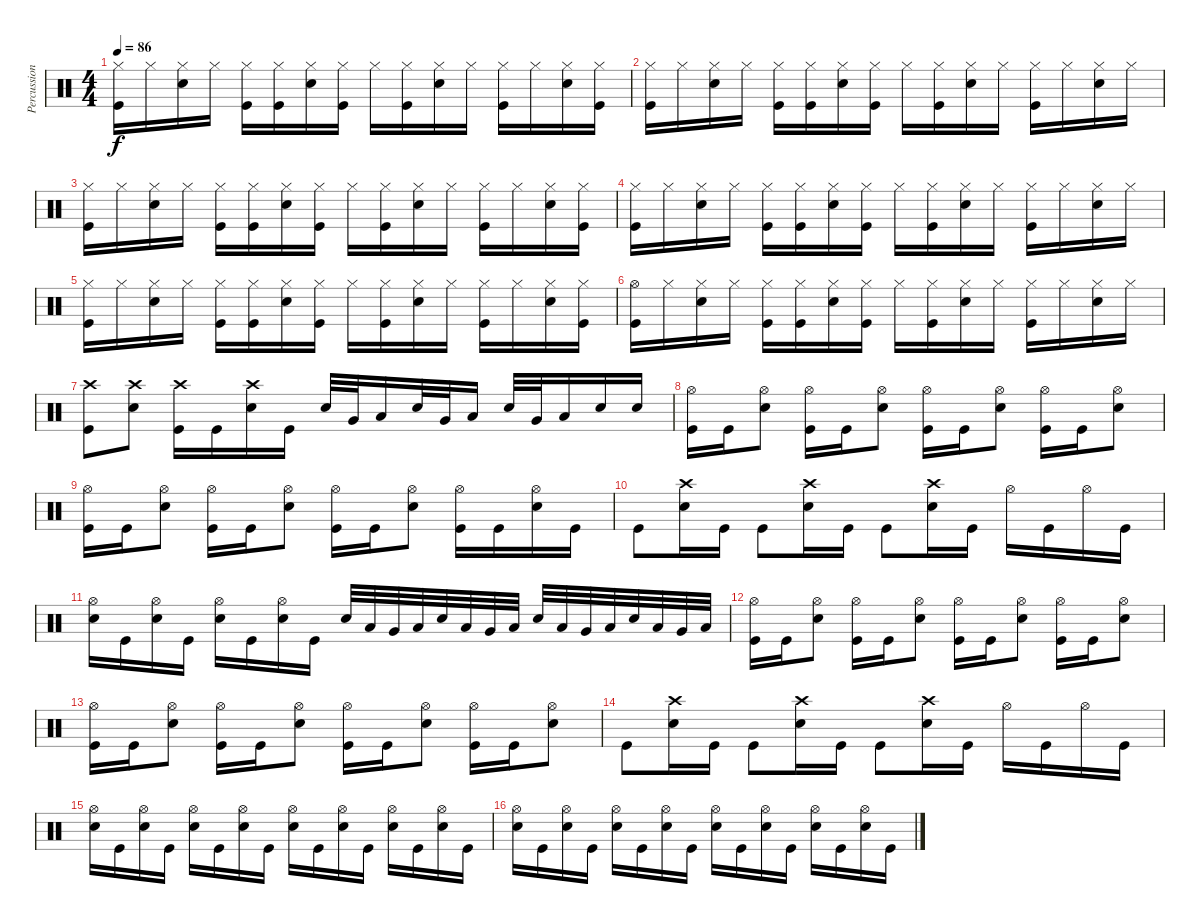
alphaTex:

\track ("Percussions" "Percussion") {instrument percussion}
\staff {score}
\articulation defaults
\ts (4 4)
\tempo 86
\clef neutral
\ks c
("Hi-Hat (closed)" "Kick (hit)").16{dy f} "Hi-Hat (closed)".16 ("Hi-Hat (closed)" "Snare (hit) 2").16 "Hi-Hat (closed)".16 ("Hi-Hat (closed)" "Kick (hit)").16 ("Hi-Hat (closed)" "Kick (hit)").16 ("Hi-Hat (closed)" "Snare (hit) 2").16 ("Hi-Hat (closed)" "Kick (hit)").16 "Hi-Hat (closed)".16 ("Hi-Hat (closed)" "Kick (hit)").16 ("Hi-Hat (closed)" "Snare (hit) 2").16 "Hi-Hat (closed)".16 ("Hi-Hat (closed)" "Kick (hit)").16 "Hi-Hat (closed)".16 ("Hi-Hat (closed)" "Snare (hit) 2").16 ("Hi-Hat (closed)" "Kick (hit)").16 |
("Hi-Hat (closed)" "Kick (hit)").16 "Hi-Hat (closed)".16 ("Hi-Hat (closed)" "Snare (hit) 2").16 "Hi-Hat (closed)".16 ("Hi-Hat (closed)" "Kick (hit)").16 ("Hi-Hat (closed)" "Kick (hit)").16 ("Hi-Hat (closed)" "Snare (hit) 2").16 ("Hi-Hat (closed)" "Kick (hit)").16 "Hi-Hat (closed)".16 ("Hi-Hat (closed)" "Kick (hit)").16 ("Hi-Hat (closed)" "Snare (hit) 2").16 "Hi-Hat (closed)".16 ("Hi-Hat (closed)" "Kick (hit)").16 "Hi-Hat (closed)".16 ("Hi-Hat (closed)" "Snare (hit) 2").16 "Hi-Hat (closed)".16 |
("Hi-Hat (closed)" "Kick (hit)").16 "Hi-Hat (closed)".16 ("Hi-Hat (closed)" "Snare (hit) 2").16 "Hi-Hat (closed)".16 ("Hi-Hat (closed)" "Kick (hit)").16 ("Hi-Hat (closed)" "Kick (hit)").16 ("Hi-Hat (closed)" "Snare (hit) 2").16 ("Hi-Hat (closed)" "Kick (hit)").16 "Hi-Hat (closed)".16 ("Hi-Hat (closed)" "Kick (hit)").16 ("Hi-Hat (closed)" "Snare (hit) 2").16 "Hi-Hat (closed)".16 ("Hi-Hat (closed)" "Kick (hit)").16 "Hi-Hat (closed)".16 ("Hi-Hat (closed)" "Snare (hit) 2").16 ("Hi-Hat (closed)" "Kick (hit)").16 |
("Hi-Hat (closed)" "Kick (hit)").16 "Hi-Hat (closed)".16 ("Hi-Hat (closed)" "Snare (hit) 2").16 "Hi-Hat (closed)".16 ("Hi-Hat (closed)" "Kick (hit)").16 ("Hi-Hat (closed)" "Kick (hit)").16 ("Hi-Hat (closed)" "Snare (hit) 2").16 ("Hi-Hat (closed)" "Kick (hit)").16 "Hi-Hat (closed)".16 ("Hi-Hat (closed)" "Kick (hit)").16 ("Hi-Hat (closed)" "Snare (hit) 2").16 "Hi-Hat (closed)".16 ("Hi-Hat (closed)" "Kick (hit)").16 "Hi-Hat (closed)".16 ("Hi-Hat (closed)" "Snare (hit) 2").16 "Hi-Hat (closed)".16 |
("Hi-Hat (closed)" "Kick (hit)").16 "Hi-Hat (closed)".16 ("Hi-Hat (closed)" "Snare (hit) 2").16 "Hi-Hat (closed)".16 ("Hi-Hat (closed)" "Kick (hit)").16 ("Hi-Hat (closed)" "Kick (hit)").16 ("Hi-Hat (closed)" "Snare (hit) 2").16 ("Hi-Hat (closed)" "Kick (hit)").16 "Hi-Hat (closed)".16 ("Hi-Hat (closed)" "Kick (hit)").16 ("Hi-Hat (closed)" "Snare (hit) 2").16 "Hi-Hat (closed)".16 ("Hi-Hat (closed)" "Kick (hit)").16 "Hi-Hat (closed)".16 ("Hi-Hat (closed)" "Snare (hit) 2").16 ("Hi-Hat (closed)" "Kick (hit)").16 |
("Hi-Hat (open)" "Kick (hit)").16 "Hi-Hat (closed)".16 ("Hi-Hat (closed)" "Snare (hit) 2").16 "Hi-Hat (closed)".16 ("Hi-Hat (closed)" "Kick (hit)").16 ("Hi-Hat (closed)" "Kick (hit)").16 ("Hi-Hat (closed)" "Snare (hit) 2").16 ("Hi-Hat (closed)" "Kick (hit)").16 "Hi-Hat (closed)".16 ("Hi-Hat (closed)" "Kick (hit)").16 ("Hi-Hat (closed)" "Snare (hit) 2").16 "Hi-Hat (closed)".16 ("Hi-Hat (closed)" "Kick (hit)").16 "Hi-Hat (closed)".16 ("Hi-Hat (closed)" "Snare (hit) 2").16 "Hi-Hat (closed)".16 |
("Crash high (hit)" "Kick (hit)").8 ("Crash high (hit)" "Snare (hit) 2").8 ("Crash high (hit)" "Kick (hit)").16 "Kick (hit)".16 ("Crash high (hit)" "Snare (hit) 2").16 "Kick (hit)".16 "Snare (hit) 2".32 "Very Low Tom (hit)".32 "Low Floor Tom (hit)".16 "Snare (hit) 2".32 "Very Low Tom (hit)".32 "Low Floor Tom (hit)".16 "Snare (hit) 2".32 "Very Low Tom (hit)".32 "Low Floor Tom (hit)".16 "Snare (hit) 2".16 "Snare (hit) 2".16 |
("Hi-Hat (open)" "Kick (hit)").16 "Kick (hit)".16 ("Hi-Hat (open)" "Snare (hit) 2").8 ("Hi-Hat (open)" "Kick (hit)").16 "Kick (hit)".16 ("Hi-Hat (open)" "Snare (hit) 2").8 ("Hi-Hat (open)" "Kick (hit)").16 "Kick (hit)".16 ("Hi-Hat (open)" "Snare (hit) 2").8 ("Hi-Hat (open)" "Kick (hit)").16 "Kick (hit)".16 ("Hi-Hat (open)" "Snare (hit) 2").8 |
("Hi-Hat (open)" "Kick (hit)").16 "Kick (hit)".16 ("Hi-Hat (open)" "Snare (hit) 2").8 ("Hi-Hat (open)" "Kick (hit)").16 "Kick (hit)".16 ("Hi-Hat (open)" "Snare (hit) 2").8 ("Hi-Hat (open)" "Kick (hit)").16 "Kick (hit)".16 ("Hi-Hat (open)" "Snare (hit) 2").8 ("Hi-Hat (open)" "Kick (hit)").16 "Kick (hit)".16 ("Hi-Hat (open)" "Snare (hit) 2").16 "Kick (hit)".16 |
"Kick (hit)".8 ("Crash high (hit)" "Snare (hit) 2").16 "Kick (hit)".16 "Kick (hit)".8 ("Crash high (hit)" "Snare (hit) 2").16 "Kick (hit)".16 "Kick (hit)".8 ("Crash high (hit)" "Snare (hit) 2").16 "Kick (hit)".16 "Hi-Hat (open)".16 "Kick (hit)".16 "Hi-Hat (open)".16 "Kick (hit)".16 |
("Hi-Hat (open)" "Snare (hit) 2").16 "Kick (hit)".16 ("Hi-Hat (open)" "Snare (hit) 2").16 "Kick (hit)".16 ("Hi-Hat (open)" "Snare (hit) 2").16 "Kick (hit)".16 ("Hi-Hat (open)" "Snare (hit) 2").16 "Kick (hit)".16 "Snare (hit) 2".32 "Low Tom (hit)".32 "Very Low Tom (hit)".32 "Low Floor Tom (hit)".32 "Snare (hit) 2".32 "Low Tom (hit)".32 "Very Low Tom (hit)".32 "Low Floor Tom (hit)".32 "Snare (hit) 2".32 "Low Tom (hit)".32 "Very Low Tom (hit)".32 "Low Floor Tom (hit)".32 "Snare (hit) 2".32 "Low Tom (hit)".32 "Very Low Tom (hit)".32 "Low Floor Tom (hit)".32 |
("Hi-Hat (open)" "Kick (hit)").16 "Kick (hit)".16 ("Hi-Hat (open)" "Snare (hit) 2").8 ("Hi-Hat (open)" "Kick (hit)").16 "Kick (hit)".16 ("Hi-Hat (open)" "Snare (hit) 2").8 ("Hi-Hat (open)" "Kick (hit)").16 "Kick (hit)".16 ("Hi-Hat (open)" "Snare (hit) 2").8 ("Hi-Hat (open)" "Kick (hit)").16 "Kick (hit)".16 ("Hi-Hat (open)" "Snare (hit) 2").8 |
("Hi-Hat (open)" "Kick (hit)").16 "Kick (hit)".16 ("Hi-Hat (open)" "Snare (hit) 2").8 ("Hi-Hat (open)" "Kick (hit)").16 "Kick (hit)".16 ("Hi-Hat (open)" "Snare (hit) 2").8 ("Hi-Hat (open)" "Kick (hit)").16 "Kick (hit)".16 ("Hi-Hat (open)" "Snare (hit) 2").8 ("Hi-Hat (open)" "Kick (hit)").16 "Kick (hit)".16 ("Hi-Hat (open)" "Snare (hit) 2").8 |
"Kick (hit)".8 ("Crash high (hit)" "Snare (hit) 2").16 "Kick (hit)".16 "Kick (hit)".8 ("Crash high (hit)" "Snare (hit) 2").16 "Kick (hit)".16 "Kick (hit)".8 ("Crash high (hit)" "Snare (hit) 2").16 "Kick (hit)".16 "Hi-Hat (open)".16 "Kick (hit)".16 "Hi-Hat (open)".16 "Kick (hit)".16 |
("Hi-Hat (open)" "Snare (hit) 2").16 "Kick (hit)".16 ("Hi-Hat (open)" "Snare (hit) 2").16 "Kick (hit)".16 ("Hi-Hat (open)" "Snare (hit) 2").16 "Kick (hit)".16 ("Hi-Hat (open)" "Snare (hit) 2").16 "Kick (hit)".16 ("Hi-Hat (open)" "Snare (hit) 2").16 "Kick (hit)".16 ("Hi-Hat (open)" "Snare (hit) 2").16 "Kick (hit)".16 ("Hi-Hat (open)" "Snare (hit) 2").16 "Kick (hit)".16 ("Hi-Hat (open)" "Snare (hit) 2").16 "Kick (hit)".16 |
("Snare (hit) 2" "Hi-Hat (open)").16 "Kick (hit)".16 ("Snare (hit) 2" "Hi-Hat (open)").16 "Kick (hit)".16 ("Snare (hit) 2" "Hi-Hat (open)").16 "Kick (hit)".16 ("Snare (hit) 2" "Hi-Hat (open)").16 "Kick (hit)".16 ("Snare (hit) 2" "Hi-Hat (open)").16 "Kick (hit)".16 ("Snare (hit) 2" "Hi-Hat (open)").16 "Kick (hit)".16 ("Snare (hit) 2" "Hi-Hat (open)").16 "Kick (hit)".16 ("Snare (hit) 2" "Hi-Hat (open)").16 "Kick (hit)".16
